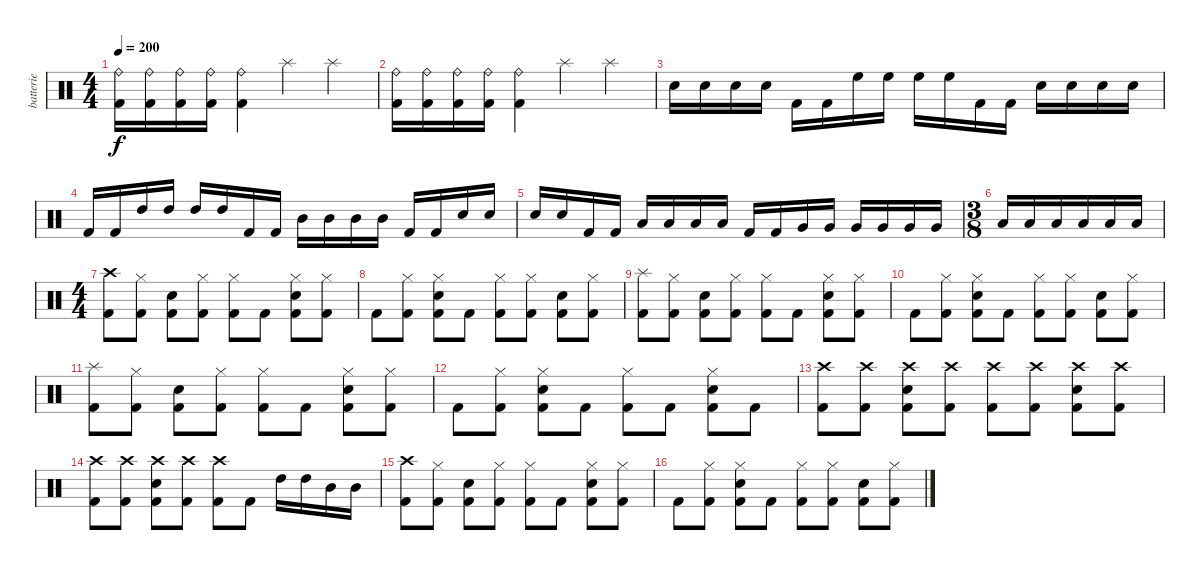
\track ("batterie" "batterie") {instrument percussion}
\staff {score}
\articulation defaults
\ts (4 4)
\tempo 200
\clef neutral
\ks c
("Kick (hit) 2" "Ride (bell)").16{dy f} ("Kick (hit) 2" "Ride (bell)").16 ("Kick (hit) 2" "Ride (bell)").16 ("Kick (hit) 2" "Ride (bell)").16 ("Kick (hit) 2" "Ride (bell)").4 "Splash (hit)".4 "Splash (hit)".4 |
("Kick (hit) 2" "Ride (bell)").16 ("Kick (hit) 2" "Ride (bell)").16 ("Kick (hit) 2" "Ride (bell)").16 ("Kick (hit) 2" "Ride (bell)").16 ("Kick (hit) 2" "Ride (bell)").4 "Splash (hit)".4 "Splash (hit)".4 |
"Electric Snare (hit)".16 "Electric Snare (hit)".16 "Electric Snare (hit)".16 "Electric Snare (hit)".16 "Kick (hit) 2".16 "Kick (hit) 2".16 "High Floor Tom (hit)".16 "High Floor Tom (hit)".16 "High Floor Tom (hit)".16 "High Floor Tom (hit)".16 "Kick (hit) 2".16 "Kick (hit) 2".16 "Electric Snare (hit)".16 "Electric Snare (hit)".16 "Electric Snare (hit)".16 "Electric Snare (hit)".16 |
"Kick (hit) 2".16 "Kick (hit) 2".16 "High Tom (hit)".16 "High Tom (hit)".16 "High Tom (hit)".16 "High Tom (hit)".16 "Kick (hit) 2".16 "Kick (hit) 2".16 "Mid Tom (hit)".16 "Mid Tom (hit)".16 "Mid Tom (hit)".16 "Mid Tom (hit)".16 "Kick (hit) 2".16 "Kick (hit) 2".16 "Electric Snare (hit)".16 "Electric Snare (hit)".16 |
"Electric Snare (hit)".16 "Electric Snare (hit)".16 "Kick (hit) 2".16 "Kick (hit) 2".16 "Low Tom (hit)".16 "Low Tom (hit)".16 "Low Tom (hit)".16 "Low Tom (hit)".16 "Kick (hit) 2".16 "Kick (hit) 2".16 "Very Low Tom (hit)".16 "Very Low Tom (hit)".16 "Very Low Tom (hit)".16 "Very Low Tom (hit)".16 "Very Low Tom (hit)".16 "Very Low Tom (hit)".16 |
\ts (3 8)
"Low Floor Tom (hit)".16 "Low Floor Tom (hit)".16 "Low Floor Tom (hit)".16 "Low Floor Tom (hit)".16 "Low Floor Tom (hit)".16 "Low Floor Tom (hit)".16 |
\ts (4 4)
("Kick (hit) 2" "Crash high (hit)").8 ("Kick (hit) 2" "Hi-Hat (closed)").8 ("Kick (hit) 2" "Electric Snare (hit)").8 ("Kick (hit) 2" "Hi-Hat (closed)").8 ("Kick (hit) 2" "Hi-Hat (closed)").8 "Kick (hit) 2".8 ("Kick (hit) 2" "Electric Snare (hit)" "Hi-Hat (closed)").8 ("Kick (hit) 2" "Hi-Hat (closed)").8 |
"Kick (hit) 2".8 ("Kick (hit) 2" "Hi-Hat (closed)").8 ("Kick (hit) 2" "Electric Snare (hit)" "Hi-Hat (closed)").8 "Kick (hit) 2".8 ("Kick (hit) 2" "Hi-Hat (closed)").8 ("Kick (hit) 2" "Hi-Hat (closed)").8 ("Kick (hit) 2" "Electric Snare (hit)").8 ("Kick (hit) 2" "Hi-Hat (closed)").8 |
("Kick (hit) 2" "Splash (hit)").8 ("Kick (hit) 2" "Hi-Hat (closed)").8 ("Kick (hit) 2" "Electric Snare (hit)").8 ("Kick (hit) 2" "Hi-Hat (closed)").8 ("Kick (hit) 2" "Hi-Hat (closed)").8 "Kick (hit) 2".8 ("Kick (hit) 2" "Electric Snare (hit)" "Hi-Hat (closed)").8 ("Kick (hit) 2" "Hi-Hat (closed)").8 |
"Kick (hit) 2".8 ("Kick (hit) 2" "Hi-Hat (closed)").8 ("Kick (hit) 2" "Electric Snare (hit)" "Hi-Hat (closed)").8 "Kick (hit) 2".8 ("Kick (hit) 2" "Hi-Hat (closed)").8 ("Kick (hit) 2" "Hi-Hat (closed)").8 ("Kick (hit) 2" "Electric Snare (hit)").8 ("Kick (hit) 2" "Hi-Hat (closed)").8 |
("Kick (hit) 2" "Splash (hit)").8 ("Kick (hit) 2" "Hi-Hat (closed)").8 ("Kick (hit) 2" "Electric Snare (hit)").8 ("Kick (hit) 2" "Hi-Hat (closed)").8 ("Kick (hit) 2" "Hi-Hat (closed)").8 "Kick (hit) 2".8 ("Kick (hit) 2" "Electric Snare (hit)" "Hi-Hat (closed)").8 ("Kick (hit) 2" "Hi-Hat (closed)").8 |
"Kick (hit) 2".8 ("Kick (hit) 2" "Hi-Hat (closed)").8 ("Kick (hit) 2" "Electric Snare (hit)" "Hi-Hat (closed)").8 "Kick (hit) 2".8 ("Kick (hit) 2" "Hi-Hat (closed)").8 "Kick (hit) 2".8 ("Kick (hit) 2" "Electric Snare (hit)" "Hi-Hat (closed)").8 "Kick (hit) 2".8 |
("Kick (hit) 2" "Crash high (hit)").8 ("Kick (hit) 2" "Crash high (hit)").8 ("Kick (hit) 2" "Electric Snare (hit)" "Crash high (hit)").8 ("Kick (hit) 2" "Crash high (hit)").8 ("Kick (hit) 2" "Crash high (hit)").8 ("Kick (hit) 2" "Crash high (hit)").8 ("Kick (hit) 2" "Electric Snare (hit)" "Crash high (hit)").8 ("Kick (hit) 2" "Crash high (hit)").8 |
("Kick (hit) 2" "Crash high (hit)").8 ("Kick (hit) 2" "Crash high (hit)").8 ("Kick (hit) 2" "Electric Snare (hit)" "Crash high (hit)").8 ("Kick (hit) 2" "Crash high (hit)").8 ("Kick (hit) 2" "Crash high (hit)").8 "Kick (hit) 2".8 "High Tom (hit)".16 "High Tom (hit)".16 "Mid Tom (hit)".16 "Mid Tom (hit)".16 |
("Kick (hit) 2" "Crash high (hit)").8 ("Kick (hit) 2" "Hi-Hat (closed)").8 ("Kick (hit) 2" "Electric Snare (hit)").8 ("Kick (hit) 2" "Hi-Hat (closed)").8 ("Kick (hit) 2" "Hi-Hat (closed)").8 "Kick (hit) 2".8 ("Kick (hit) 2" "Electric Snare (hit)" "Hi-Hat (closed)").8 ("Kick (hit) 2" "Hi-Hat (closed)").8 |
"Kick (hit) 2".8 ("Kick (hit) 2" "Hi-Hat (closed)").8 ("Kick (hit) 2" "Electric Snare (hit)" "Hi-Hat (closed)").8 "Kick (hit) 2".8 ("Kick (hit) 2" "Hi-Hat (closed)").8 ("Kick (hit) 2" "Hi-Hat (closed)").8 ("Kick (hit) 2" "Electric Snare (hit)").8 ("Kick (hit) 2" "Hi-Hat (closed)").8
